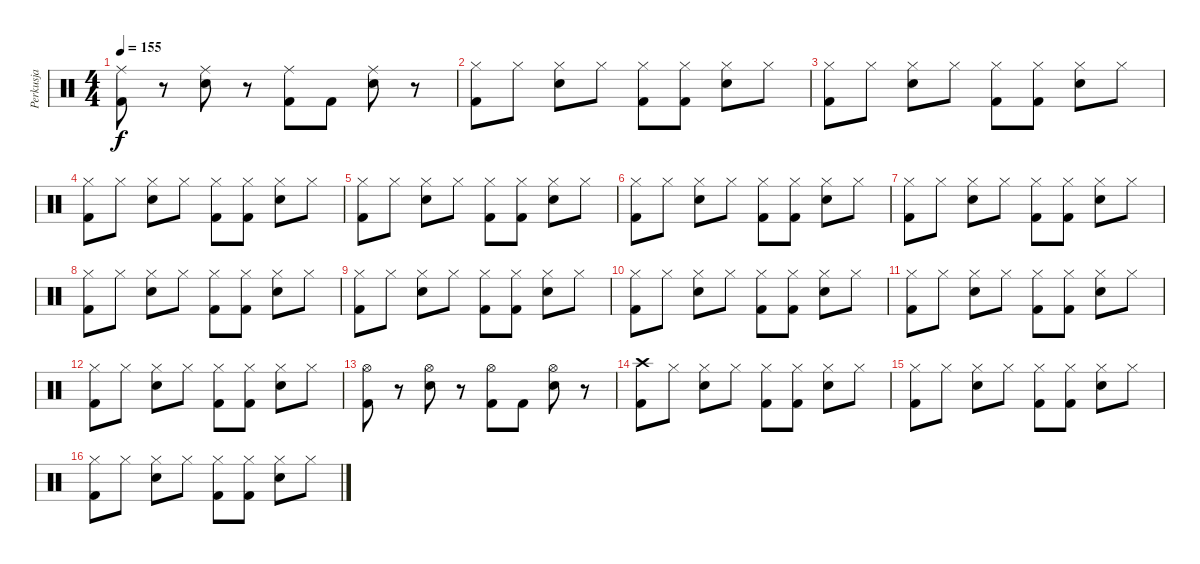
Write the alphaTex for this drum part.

\track ("Perkusja" "Perkusja") {instrument percussion}
\staff {score}
\articulation defaults
\ts (4 4)
\tempo 155
\clef neutral
\ks c
("Ride (middle)" "Kick (hit) 2").8{dy f} r.8 ("Ride (middle)" "Electric Snare (hit)").8 r.8 ("Ride (middle)" "Kick (hit) 2").8 "Kick (hit) 2".8 ("Ride (middle)" "Electric Snare (hit)").8 r.8 |
("Hi-Hat (closed)" "Kick (hit) 2").8 "Hi-Hat (closed)".8 ("Hi-Hat (closed)" "Electric Snare (hit)").8 "Hi-Hat (closed)".8 ("Hi-Hat (closed)" "Kick (hit) 2").8 ("Hi-Hat (closed)" "Kick (hit) 2").8 ("Hi-Hat (closed)" "Electric Snare (hit)").8 "Hi-Hat (closed)".8 |
("Hi-Hat (closed)" "Kick (hit) 2").8 "Hi-Hat (closed)".8 ("Hi-Hat (closed)" "Electric Snare (hit)").8 "Hi-Hat (closed)".8 ("Hi-Hat (closed)" "Kick (hit) 2").8 ("Hi-Hat (closed)" "Kick (hit) 2").8 ("Hi-Hat (closed)" "Electric Snare (hit)").8 "Hi-Hat (closed)".8 |
("Hi-Hat (closed)" "Kick (hit) 2").8 "Hi-Hat (closed)".8 ("Hi-Hat (closed)" "Electric Snare (hit)").8 "Hi-Hat (closed)".8 ("Hi-Hat (closed)" "Kick (hit) 2").8 ("Hi-Hat (closed)" "Kick (hit) 2").8 ("Hi-Hat (closed)" "Electric Snare (hit)").8 "Hi-Hat (closed)".8 |
("Hi-Hat (closed)" "Kick (hit) 2").8 "Hi-Hat (closed)".8 ("Hi-Hat (closed)" "Electric Snare (hit)").8 "Hi-Hat (closed)".8 ("Hi-Hat (closed)" "Kick (hit) 2").8 ("Hi-Hat (closed)" "Kick (hit) 2").8 ("Hi-Hat (closed)" "Electric Snare (hit)").8 "Hi-Hat (closed)".8 |
("Hi-Hat (closed)" "Kick (hit) 2").8 "Hi-Hat (closed)".8 ("Hi-Hat (closed)" "Electric Snare (hit)").8 "Hi-Hat (closed)".8 ("Hi-Hat (closed)" "Kick (hit) 2").8 ("Hi-Hat (closed)" "Kick (hit) 2").8 ("Hi-Hat (closed)" "Electric Snare (hit)").8 "Hi-Hat (closed)".8 |
("Hi-Hat (closed)" "Kick (hit) 2").8 "Hi-Hat (closed)".8 ("Hi-Hat (closed)" "Electric Snare (hit)").8 "Hi-Hat (closed)".8 ("Hi-Hat (closed)" "Kick (hit) 2").8 ("Hi-Hat (closed)" "Kick (hit) 2").8 ("Hi-Hat (closed)" "Electric Snare (hit)").8 "Hi-Hat (closed)".8 |
("Hi-Hat (closed)" "Kick (hit) 2").8 "Hi-Hat (closed)".8 ("Hi-Hat (closed)" "Electric Snare (hit)").8 "Hi-Hat (closed)".8 ("Hi-Hat (closed)" "Kick (hit) 2").8 ("Hi-Hat (closed)" "Kick (hit) 2").8 ("Hi-Hat (closed)" "Electric Snare (hit)").8 "Hi-Hat (closed)".8 |
("Hi-Hat (closed)" "Kick (hit) 2").8 "Hi-Hat (closed)".8 ("Hi-Hat (closed)" "Electric Snare (hit)").8 "Hi-Hat (closed)".8 ("Hi-Hat (closed)" "Kick (hit) 2").8 ("Hi-Hat (closed)" "Kick (hit) 2").8 ("Hi-Hat (closed)" "Electric Snare (hit)").8 "Hi-Hat (closed)".8 |
("Hi-Hat (closed)" "Kick (hit) 2").8 "Hi-Hat (closed)".8 ("Hi-Hat (closed)" "Electric Snare (hit)").8 "Hi-Hat (closed)".8 ("Hi-Hat (closed)" "Kick (hit) 2").8 ("Hi-Hat (closed)" "Kick (hit) 2").8 ("Hi-Hat (closed)" "Electric Snare (hit)").8 "Hi-Hat (closed)".8 |
("Hi-Hat (closed)" "Kick (hit) 2").8 "Hi-Hat (closed)".8 ("Hi-Hat (closed)" "Electric Snare (hit)").8 "Hi-Hat (closed)".8 ("Hi-Hat (closed)" "Kick (hit) 2").8 ("Hi-Hat (closed)" "Kick (hit) 2").8 ("Hi-Hat (closed)" "Electric Snare (hit)").8 "Hi-Hat (closed)".8 |
("Hi-Hat (closed)" "Kick (hit) 2").8 "Hi-Hat (closed)".8 ("Hi-Hat (closed)" "Electric Snare (hit)").8 "Hi-Hat (closed)".8 ("Hi-Hat (closed)" "Kick (hit) 2").8 ("Hi-Hat (closed)" "Kick (hit) 2").8 ("Hi-Hat (closed)" "Electric Snare (hit)").8 "Hi-Hat (closed)".8 |
("Hi-Hat (open)" "Kick (hit) 2").8 r.8 ("Hi-Hat (open)" "Electric Snare (hit)").8 r.8 ("Hi-Hat (open)" "Kick (hit) 2").8 "Kick (hit) 2".8 ("Hi-Hat (open)" "Electric Snare (hit)").8 r.8 |
("Crash high (hit)" "Kick (hit) 2").8 "Hi-Hat (closed)".8 ("Hi-Hat (closed)" "Electric Snare (hit)").8 "Hi-Hat (closed)".8 ("Hi-Hat (closed)" "Kick (hit) 2").8 ("Hi-Hat (closed)" "Kick (hit) 2").8 ("Hi-Hat (closed)" "Electric Snare (hit)").8 "Hi-Hat (closed)".8 |
("Hi-Hat (closed)" "Kick (hit) 2").8 "Hi-Hat (closed)".8 ("Hi-Hat (closed)" "Electric Snare (hit)").8 "Hi-Hat (closed)".8 ("Hi-Hat (closed)" "Kick (hit) 2").8 ("Hi-Hat (closed)" "Kick (hit) 2").8 ("Hi-Hat (closed)" "Electric Snare (hit)").8 "Hi-Hat (closed)".8 |
("Hi-Hat (closed)" "Kick (hit) 2").8 "Hi-Hat (closed)".8 ("Hi-Hat (closed)" "Electric Snare (hit)").8 "Hi-Hat (closed)".8 ("Hi-Hat (closed)" "Kick (hit) 2").8 ("Hi-Hat (closed)" "Kick (hit) 2").8 ("Hi-Hat (closed)" "Electric Snare (hit)").8 "Hi-Hat (closed)".8
